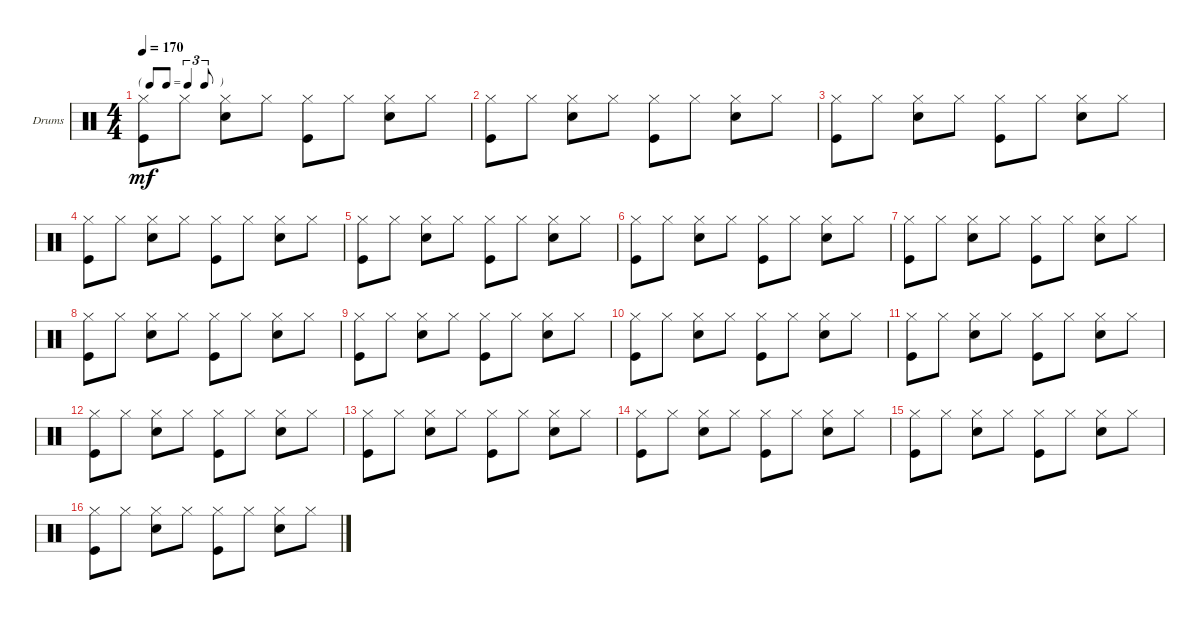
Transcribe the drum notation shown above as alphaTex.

\defaultSystemsLayout 4
\bracketExtendMode groupsimilarinstruments
\firstSystemTrackNameOrientation horizontal
\otherSystemsTrackNameOrientation horizontal
\track ("Drumkit" "Drums") {instrument percussion}
\staff {score}
\articulation defaults
\ts (4 4)
\tf triplet8th
\tempo 170
\clef neutral
\scale
0.333333
\ks c
("Hi-Hat (closed)" "Kick (hit)").8{dy mf} "Hi-Hat (closed)".8 ("Hi-Hat (closed)" "Snare (hit) 2").8 "Hi-Hat (closed)".8 ("Hi-Hat (closed)" "Kick (hit)").8 "Hi-Hat (closed)".8 ("Hi-Hat (closed)" "Snare (hit) 2").8 "Hi-Hat (closed)".8 |
\scale
0.333333 ("Hi-Hat (closed)" "Kick (hit)").8 "Hi-Hat (closed)".8 ("Hi-Hat (closed)" "Snare (hit) 2").8 "Hi-Hat (closed)".8 ("Hi-Hat (closed)" "Kick (hit)").8 "Hi-Hat (closed)".8 ("Hi-Hat (closed)" "Snare (hit) 2").8 "Hi-Hat (closed)".8 |
\scale
0.333333 ("Hi-Hat (closed)" "Kick (hit)").8 "Hi-Hat (closed)".8 ("Hi-Hat (closed)" "Snare (hit) 2").8 "Hi-Hat (closed)".8 ("Hi-Hat (closed)" "Kick (hit)").8 "Hi-Hat (closed)".8 ("Hi-Hat (closed)" "Snare (hit) 2").8 "Hi-Hat (closed)".8 |
\scale
0.333333 ("Hi-Hat (closed)" "Kick (hit)").8 "Hi-Hat (closed)".8 ("Hi-Hat (closed)" "Snare (hit) 2").8 "Hi-Hat (closed)".8 ("Hi-Hat (closed)" "Kick (hit)").8 "Hi-Hat (closed)".8 ("Hi-Hat (closed)" "Snare (hit) 2").8 "Hi-Hat (closed)".8 |
("Hi-Hat (closed)" "Kick (hit)").8 "Hi-Hat (closed)".8 ("Hi-Hat (closed)" "Snare (hit) 2").8 "Hi-Hat (closed)".8 ("Hi-Hat (closed)" "Kick (hit)").8 "Hi-Hat (closed)".8 ("Hi-Hat (closed)" "Snare (hit) 2").8 "Hi-Hat (closed)".8 |
("Hi-Hat (closed)" "Kick (hit)").8 "Hi-Hat (closed)".8 ("Hi-Hat (closed)" "Snare (hit) 2").8 "Hi-Hat (closed)".8 ("Hi-Hat (closed)" "Kick (hit)").8 "Hi-Hat (closed)".8 ("Hi-Hat (closed)" "Snare (hit) 2").8 "Hi-Hat (closed)".8 |
("Hi-Hat (closed)" "Kick (hit)").8 "Hi-Hat (closed)".8 ("Hi-Hat (closed)" "Snare (hit) 2").8 "Hi-Hat (closed)".8 ("Hi-Hat (closed)" "Kick (hit)").8 "Hi-Hat (closed)".8 ("Hi-Hat (closed)" "Snare (hit) 2").8 "Hi-Hat (closed)".8 |
("Hi-Hat (closed)" "Kick (hit)").8 "Hi-Hat (closed)".8 ("Hi-Hat (closed)" "Snare (hit) 2").8 "Hi-Hat (closed)".8 ("Hi-Hat (closed)" "Kick (hit)").8 "Hi-Hat (closed)".8 ("Hi-Hat (closed)" "Snare (hit) 2").8 "Hi-Hat (closed)".8 |
("Hi-Hat (closed)" "Kick (hit)").8 "Hi-Hat (closed)".8 ("Hi-Hat (closed)" "Snare (hit) 2").8 "Hi-Hat (closed)".8 ("Hi-Hat (closed)" "Kick (hit)").8 "Hi-Hat (closed)".8 ("Hi-Hat (closed)" "Snare (hit) 2").8 "Hi-Hat (closed)".8 |
("Hi-Hat (closed)" "Kick (hit)").8 "Hi-Hat (closed)".8 ("Hi-Hat (closed)" "Snare (hit) 2").8 "Hi-Hat (closed)".8 ("Hi-Hat (closed)" "Kick (hit)").8 "Hi-Hat (closed)".8 ("Hi-Hat (closed)" "Snare (hit) 2").8 "Hi-Hat (closed)".8 |
("Hi-Hat (closed)" "Kick (hit)").8 "Hi-Hat (closed)".8 ("Hi-Hat (closed)" "Snare (hit) 2").8 "Hi-Hat (closed)".8 ("Hi-Hat (closed)" "Kick (hit)").8 "Hi-Hat (closed)".8 ("Hi-Hat (closed)" "Snare (hit) 2").8 "Hi-Hat (closed)".8 |
("Hi-Hat (closed)" "Kick (hit)").8 "Hi-Hat (closed)".8 ("Hi-Hat (closed)" "Snare (hit) 2").8 "Hi-Hat (closed)".8 ("Hi-Hat (closed)" "Kick (hit)").8 "Hi-Hat (closed)".8 ("Hi-Hat (closed)" "Snare (hit) 2").8 "Hi-Hat (closed)".8 |
("Hi-Hat (closed)" "Kick (hit)").8 "Hi-Hat (closed)".8 ("Hi-Hat (closed)" "Snare (hit) 2").8 "Hi-Hat (closed)".8 ("Hi-Hat (closed)" "Kick (hit)").8 "Hi-Hat (closed)".8 ("Hi-Hat (closed)" "Snare (hit) 2").8 "Hi-Hat (closed)".8 |
("Hi-Hat (closed)" "Kick (hit)").8 "Hi-Hat (closed)".8 ("Hi-Hat (closed)" "Snare (hit) 2").8 "Hi-Hat (closed)".8 ("Hi-Hat (closed)" "Kick (hit)").8 "Hi-Hat (closed)".8 ("Hi-Hat (closed)" "Snare (hit) 2").8 "Hi-Hat (closed)".8 |
("Hi-Hat (closed)" "Kick (hit)").8 "Hi-Hat (closed)".8 ("Hi-Hat (closed)" "Snare (hit) 2").8 "Hi-Hat (closed)".8 ("Hi-Hat (closed)" "Kick (hit)").8 "Hi-Hat (closed)".8 ("Hi-Hat (closed)" "Snare (hit) 2").8 "Hi-Hat (closed)".8 |
("Hi-Hat (closed)" "Kick (hit)").8 "Hi-Hat (closed)".8 ("Hi-Hat (closed)" "Snare (hit) 2").8 "Hi-Hat (closed)".8 ("Hi-Hat (closed)" "Kick (hit)").8 "Hi-Hat (closed)".8 ("Hi-Hat (closed)" "Snare (hit) 2").8 "Hi-Hat (closed)".8
